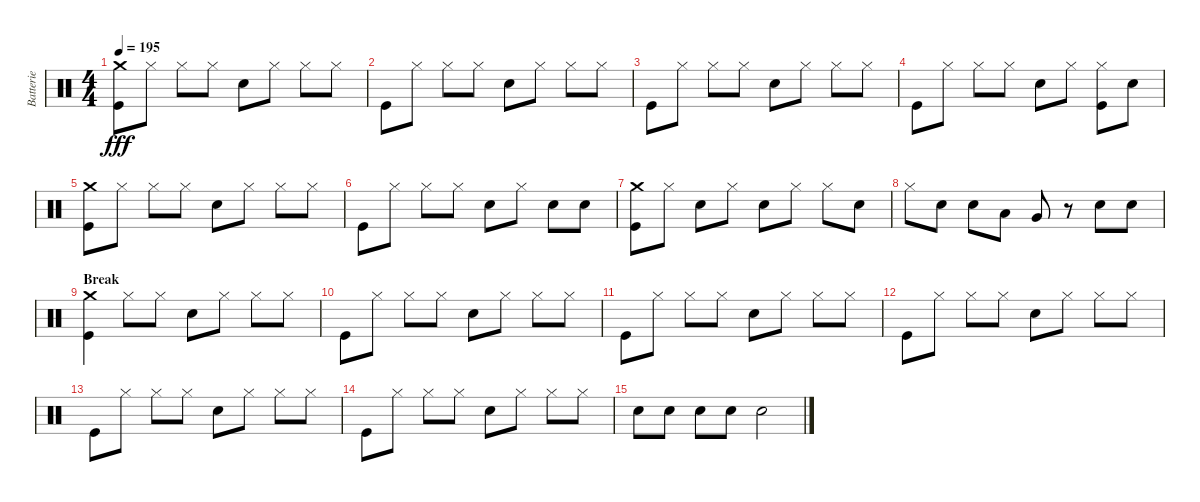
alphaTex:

\track ("Batterie" "Batterie") {instrument percussion}
\staff {score}
\articulation defaults
\ts (4 4)
\tempo 195
\clef neutral
\ks c
("Crash medium (hit)" "Kick (hit)").8{dy fff} "Hi-Hat (closed)".8 "Hi-Hat (closed)".8 "Hi-Hat (closed)".8 "Electric Snare (hit)".8 "Hi-Hat (closed)".8 "Hi-Hat (closed)".8 "Hi-Hat (closed)".8 |
"Kick (hit)".8 "Hi-Hat (closed)".8 "Hi-Hat (closed)".8 "Hi-Hat (closed)".8 "Electric Snare (hit)".8 "Hi-Hat (closed)".8 "Hi-Hat (closed)".8 "Hi-Hat (closed)".8 |
"Kick (hit)".8 "Hi-Hat (closed)".8 "Hi-Hat (closed)".8 "Hi-Hat (closed)".8 "Electric Snare (hit)".8 "Hi-Hat (closed)".8 "Hi-Hat (closed)".8 "Hi-Hat (closed)".8 |
"Kick (hit)".8 "Hi-Hat (closed)".8 "Hi-Hat (closed)".8 "Hi-Hat (closed)".8 "Electric Snare (hit)".8 "Hi-Hat (closed)".8 ("Hi-Hat (closed)" "Kick (hit)").8 "Electric Snare (hit)".8 |
("Crash medium (hit)" "Kick (hit)").8 "Hi-Hat (closed)".8 "Hi-Hat (closed)".8 "Hi-Hat (closed)".8 "Electric Snare (hit)".8 "Hi-Hat (closed)".8 "Hi-Hat (closed)".8 "Hi-Hat (closed)".8 |
"Kick (hit)".8 "Hi-Hat (closed)".8 "Hi-Hat (closed)".8 "Hi-Hat (closed)".8 "Electric Snare (hit)".8 "Hi-Hat (closed)".8 "Electric Snare (hit)".8 "Electric Snare (hit)".8 |
("Crash medium (hit)" "Kick (hit)").8 "Hi-Hat (closed)".8 "Electric Snare (hit)".8 "Hi-Hat (closed)".8 "Electric Snare (hit)".8 "Hi-Hat (closed)".8 "Hi-Hat (closed)".8 "Electric Snare (hit)".8 |
"Hi-Hat (closed)".8 "Electric Snare (hit)".8 "Electric Snare (hit)".8 "Low Tom (hit)".8 "Very Low Tom (hit)".8 r.8 "Electric Snare (hit)".8 "Electric Snare (hit)".8 |
\section ("" "Break")
("Crash medium (hit)" "Kick (hit)").4 "Hi-Hat (closed)".8 "Hi-Hat (closed)".8 "Electric Snare (hit)".8 "Hi-Hat (closed)".8 "Hi-Hat (closed)".8 "Hi-Hat (closed)".8 |
"Kick (hit)".8 "Hi-Hat (closed)".8 "Hi-Hat (closed)".8 "Hi-Hat (closed)".8 "Electric Snare (hit)".8 "Hi-Hat (closed)".8 "Hi-Hat (closed)".8 "Hi-Hat (closed)".8 |
"Kick (hit)".8 "Hi-Hat (closed)".8 "Hi-Hat (closed)".8 "Hi-Hat (closed)".8 "Electric Snare (hit)".8 "Hi-Hat (closed)".8 "Hi-Hat (closed)".8 "Hi-Hat (closed)".8 |
"Kick (hit)".8 "Hi-Hat (closed)".8 "Hi-Hat (closed)".8 "Hi-Hat (closed)".8 "Electric Snare (hit)".8 "Hi-Hat (closed)".8 "Hi-Hat (closed)".8 "Hi-Hat (closed)".8 |
"Kick (hit)".8 "Hi-Hat (closed)".8 "Hi-Hat (closed)".8 "Hi-Hat (closed)".8 "Electric Snare (hit)".8 "Hi-Hat (closed)".8 "Hi-Hat (closed)".8 "Hi-Hat (closed)".8 |
"Kick (hit)".8 "Hi-Hat (closed)".8 "Hi-Hat (closed)".8 "Hi-Hat (closed)".8 "Electric Snare (hit)".8 "Hi-Hat (closed)".8 "Hi-Hat (closed)".8 "Hi-Hat (closed)".8 |
"Electric Snare (hit)".8 "Electric Snare (hit)".8 "Electric Snare (hit)".8 "Electric Snare (hit)".8 "Electric Snare (hit)".2
